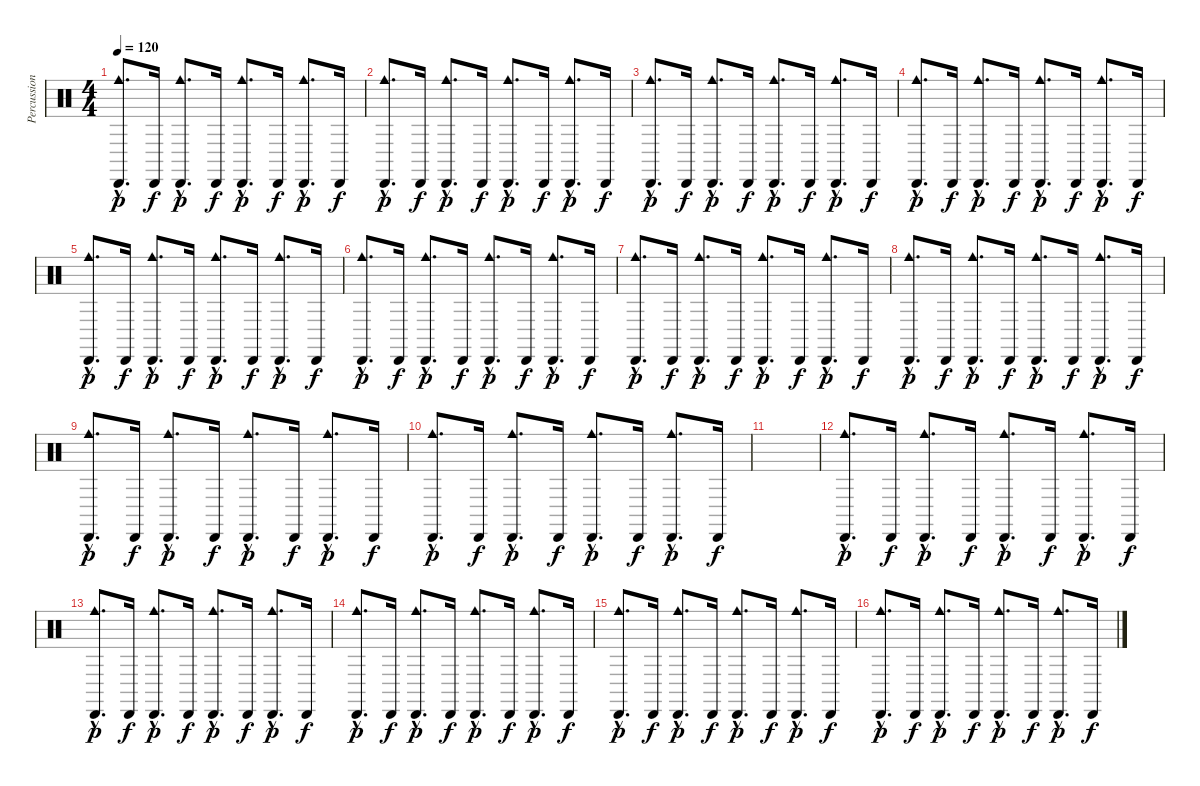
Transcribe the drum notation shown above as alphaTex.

\track ("Percussions" "Percussion") {instrument percussion}
\staff {score}
\articulation defaults
\ts (4 4)
\tempo 120
\clef neutral
\ks c
("Cabasa (hit)"{hac} "Cowbell medium (hit)"{hac}).8{d dy p} "Cabasa (hit)".16{dy f} ("Cabasa (hit)"{hac} "Cowbell medium (hit)"{hac}).8{d dy p} "Cabasa (hit)".16{dy f} ("Cabasa (hit)"{hac} "Cowbell medium (hit)"{hac}).8{d dy p} "Cabasa (hit)".16{dy f} ("Cabasa (hit)"{hac} "Cowbell medium (hit)"{hac}).8{d dy p} "Cabasa (hit)".16{dy f} |
("Cabasa (hit)"{hac} "Cowbell medium (hit)"{hac}).8{d dy p} "Cabasa (hit)".16{dy f} ("Cabasa (hit)"{hac} "Cowbell medium (hit)"{hac}).8{d dy p} "Cabasa (hit)".16{dy f} ("Cabasa (hit)"{hac} "Cowbell medium (hit)"{hac}).8{d dy p} "Cabasa (hit)".16{dy f} ("Cabasa (hit)"{hac} "Cowbell medium (hit)"{hac}).8{d dy p} "Cabasa (hit)".16{dy f} |
("Cabasa (hit)"{hac} "Cowbell medium (hit)"{hac}).8{d dy p} "Cabasa (hit)".16{dy f} ("Cabasa (hit)"{hac} "Cowbell medium (hit)"{hac}).8{d dy p} "Cabasa (hit)".16{dy f} ("Cabasa (hit)"{hac} "Cowbell medium (hit)"{hac}).8{d dy p} "Cabasa (hit)".16{dy f} ("Cabasa (hit)"{hac} "Cowbell medium (hit)"{hac}).8{d dy p} "Cabasa (hit)".16{dy f} |
("Cabasa (hit)"{hac} "Cowbell medium (hit)"{hac}).8{d dy p} "Cabasa (hit)".16{dy f} ("Cabasa (hit)"{hac} "Cowbell medium (hit)"{hac}).8{d dy p} "Cabasa (hit)".16{dy f} ("Cabasa (hit)"{hac} "Cowbell medium (hit)"{hac}).8{d dy p} "Cabasa (hit)".16{dy f} ("Cabasa (hit)"{hac} "Cowbell medium (hit)"{hac}).8{d dy p} "Cabasa (hit)".16{dy f} |
("Cabasa (hit)"{hac} "Cowbell medium (hit)"{hac}).8{d dy p} "Cabasa (hit)".16{dy f} ("Cabasa (hit)"{hac} "Cowbell medium (hit)"{hac}).8{d dy p} "Cabasa (hit)".16{dy f} ("Cabasa (hit)"{hac} "Cowbell medium (hit)"{hac}).8{d dy p} "Cabasa (hit)".16{dy f} ("Cabasa (hit)"{hac} "Cowbell medium (hit)"{hac}).8{d dy p} "Cabasa (hit)".16{dy f} |
("Cabasa (hit)"{hac} "Cowbell medium (hit)"{hac}).8{d dy p} "Cabasa (hit)".16{dy f} ("Cabasa (hit)"{hac} "Cowbell medium (hit)"{hac}).8{d dy p} "Cabasa (hit)".16{dy f} ("Cabasa (hit)"{hac} "Cowbell medium (hit)"{hac}).8{d dy p} "Cabasa (hit)".16{dy f} ("Cabasa (hit)"{hac} "Cowbell medium (hit)"{hac}).8{d dy p} "Cabasa (hit)".16{dy f} |
("Cabasa (hit)"{hac} "Cowbell medium (hit)"{hac}).8{d dy p} "Cabasa (hit)".16{dy f} ("Cabasa (hit)"{hac} "Cowbell medium (hit)"{hac}).8{d dy p} "Cabasa (hit)".16{dy f} ("Cabasa (hit)"{hac} "Cowbell medium (hit)"{hac}).8{d dy p} "Cabasa (hit)".16{dy f} ("Cabasa (hit)"{hac} "Cowbell medium (hit)"{hac}).8{d dy p} "Cabasa (hit)".16{dy f} |
("Cabasa (hit)"{hac} "Cowbell medium (hit)"{hac}).8{d dy p} "Cabasa (hit)".16{dy f} ("Cabasa (hit)"{hac} "Cowbell medium (hit)"{hac}).8{d dy p} "Cabasa (hit)".16{dy f} ("Cabasa (hit)"{hac} "Cowbell medium (hit)"{hac}).8{d dy p} "Cabasa (hit)".16{dy f} ("Cabasa (hit)"{hac} "Cowbell medium (hit)"{hac}).8{d dy p} "Cabasa (hit)".16{dy f} |
("Cabasa (hit)"{hac} "Cowbell medium (hit)"{hac}).8{d dy p} "Cabasa (hit)".16{dy f} ("Cabasa (hit)"{hac} "Cowbell medium (hit)"{hac}).8{d dy p} "Cabasa (hit)".16{dy f} ("Cabasa (hit)"{hac} "Cowbell medium (hit)"{hac}).8{d dy p} "Cabasa (hit)".16{dy f} ("Cabasa (hit)"{hac} "Cowbell medium (hit)"{hac}).8{d dy p} "Cabasa (hit)".16{dy f} |
("Cabasa (hit)"{hac} "Cowbell medium (hit)"{hac}).8{d dy p} "Cabasa (hit)".16{dy f} ("Cabasa (hit)"{hac} "Cowbell medium (hit)"{hac}).8{d dy p} "Cabasa (hit)".16{dy f} ("Cabasa (hit)"{hac} "Cowbell medium (hit)"{hac}).8{d dy p} "Cabasa (hit)".16{dy f} ("Cabasa (hit)"{hac} "Cowbell medium (hit)"{hac}).8{d dy p} "Cabasa (hit)".16{dy f} |
|
("Cabasa (hit)"{hac} "Cowbell medium (hit)"{hac}).8{d dy p} "Cabasa (hit)".16{dy f} ("Cabasa (hit)"{hac} "Cowbell medium (hit)"{hac}).8{d dy p} "Cabasa (hit)".16{dy f} ("Cabasa (hit)"{hac} "Cowbell medium (hit)"{hac}).8{d dy p} "Cabasa (hit)".16{dy f} ("Cabasa (hit)"{hac} "Cowbell medium (hit)"{hac}).8{d dy p} "Cabasa (hit)".16{dy f} |
("Cabasa (hit)"{hac} "Cowbell medium (hit)"{hac}).8{d dy p} "Cabasa (hit)".16{dy f} ("Cabasa (hit)"{hac} "Cowbell medium (hit)"{hac}).8{d dy p} "Cabasa (hit)".16{dy f} ("Cabasa (hit)"{hac} "Cowbell medium (hit)"{hac}).8{d dy p} "Cabasa (hit)".16{dy f} ("Cabasa (hit)"{hac} "Cowbell medium (hit)"{hac}).8{d dy p} "Cabasa (hit)".16{dy f} |
("Cabasa (hit)"{hac} "Cowbell medium (hit)"{hac}).8{d dy p} "Cabasa (hit)".16{dy f} ("Cabasa (hit)"{hac} "Cowbell medium (hit)"{hac}).8{d dy p} "Cabasa (hit)".16{dy f} ("Cabasa (hit)"{hac} "Cowbell medium (hit)"{hac}).8{d dy p} "Cabasa (hit)".16{dy f} ("Cabasa (hit)"{hac} "Cowbell medium (hit)"{hac}).8{d dy p} "Cabasa (hit)".16{dy f} |
("Cabasa (hit)"{hac} "Cowbell medium (hit)"{hac}).8{d dy p} "Cabasa (hit)".16{dy f} ("Cabasa (hit)"{hac} "Cowbell medium (hit)"{hac}).8{d dy p} "Cabasa (hit)".16{dy f} ("Cabasa (hit)"{hac} "Cowbell medium (hit)"{hac}).8{d dy p} "Cabasa (hit)".16{dy f} ("Cabasa (hit)"{hac} "Cowbell medium (hit)"{hac}).8{d dy p} "Cabasa (hit)".16{dy f} |
("Cabasa (hit)"{hac} "Cowbell medium (hit)"{hac}).8{d dy p} "Cabasa (hit)".16{dy f} ("Cabasa (hit)"{hac} "Cowbell medium (hit)"{hac}).8{d dy p} "Cabasa (hit)".16{dy f} ("Cabasa (hit)"{hac} "Cowbell medium (hit)"{hac}).8{d dy p} "Cabasa (hit)".16{dy f} ("Cabasa (hit)"{hac} "Cowbell medium (hit)"{hac}).8{d dy p} "Cabasa (hit)".16{dy f}
